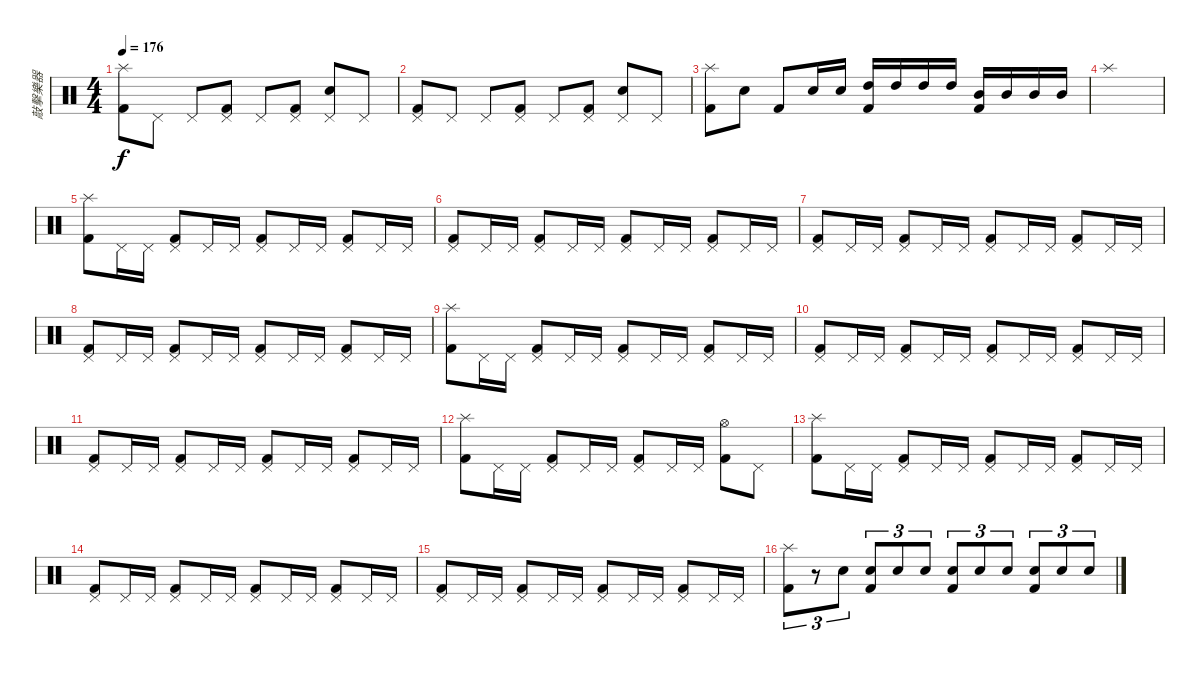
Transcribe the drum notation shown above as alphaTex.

\track ("敲擊樂器" "敲擊樂器") {instrument percussion}
\staff {score}
\articulation defaults
\ts (4 4)
\tempo 176
\clef neutral
\ks c
("Splash (hit)" "Kick (hit) 2").8{dy f} "Pedal Hi-Hat (hit)".8 "Pedal Hi-Hat (hit)".8 ("Kick (hit) 2" "Pedal Hi-Hat (hit)").8 "Pedal Hi-Hat (hit)".8 ("Pedal Hi-Hat (hit)" "Kick (hit) 2").8 ("Snare (hit) 2" "Pedal Hi-Hat (hit)").8 "Pedal Hi-Hat (hit)".8 |
("Pedal Hi-Hat (hit)" "Kick (hit) 2").8 "Pedal Hi-Hat (hit)".8 "Pedal Hi-Hat (hit)".8 ("Kick (hit) 2" "Pedal Hi-Hat (hit)").8 "Pedal Hi-Hat (hit)".8 ("Pedal Hi-Hat (hit)" "Kick (hit) 2").8 ("Snare (hit) 2" "Pedal Hi-Hat (hit)").8 "Pedal Hi-Hat (hit)".8 |
("Splash (hit)" "Kick (hit) 2").8 "Snare (hit) 2".8 "Kick (hit) 2".8 "Snare (hit) 2".16 "Snare (hit) 2".16 ("High Tom (hit)" "Kick (hit) 2").16 "High Tom (hit)".16 "High Tom (hit)".16 "High Tom (hit)".16 ("Kick (hit) 2" "Mid Tom (hit)").16 "Mid Tom (hit)".16 "Mid Tom (hit)".16 "Mid Tom (hit)".16 |
"Splash (hit)".1 |
("Splash (hit)" "Kick (hit) 2").8 "Pedal Hi-Hat (hit)".16 "Pedal Hi-Hat (hit)".16 ("Pedal Hi-Hat (hit)" "Kick (hit) 2").8 "Pedal Hi-Hat (hit)".16 "Pedal Hi-Hat (hit)".16 ("Pedal Hi-Hat (hit)" "Kick (hit) 2").8 "Pedal Hi-Hat (hit)".16 "Pedal Hi-Hat (hit)".16 ("Pedal Hi-Hat (hit)" "Kick (hit) 2").8 "Pedal Hi-Hat (hit)".16 "Pedal Hi-Hat (hit)".16 |
("Pedal Hi-Hat (hit)" "Kick (hit) 2").8 "Pedal Hi-Hat (hit)".16 "Pedal Hi-Hat (hit)".16 ("Pedal Hi-Hat (hit)" "Kick (hit) 2").8 "Pedal Hi-Hat (hit)".16 "Pedal Hi-Hat (hit)".16 ("Pedal Hi-Hat (hit)" "Kick (hit) 2").8 "Pedal Hi-Hat (hit)".16 "Pedal Hi-Hat (hit)".16 ("Pedal Hi-Hat (hit)" "Kick (hit) 2").8 "Pedal Hi-Hat (hit)".16 "Pedal Hi-Hat (hit)".16 |
("Pedal Hi-Hat (hit)" "Kick (hit) 2").8 "Pedal Hi-Hat (hit)".16 "Pedal Hi-Hat (hit)".16 ("Pedal Hi-Hat (hit)" "Kick (hit) 2").8 "Pedal Hi-Hat (hit)".16 "Pedal Hi-Hat (hit)".16 ("Pedal Hi-Hat (hit)" "Kick (hit) 2").8 "Pedal Hi-Hat (hit)".16 "Pedal Hi-Hat (hit)".16 ("Pedal Hi-Hat (hit)" "Kick (hit) 2").8 "Pedal Hi-Hat (hit)".16 "Pedal Hi-Hat (hit)".16 |
("Pedal Hi-Hat (hit)" "Kick (hit) 2").8 "Pedal Hi-Hat (hit)".16 "Pedal Hi-Hat (hit)".16 ("Pedal Hi-Hat (hit)" "Kick (hit) 2").8 "Pedal Hi-Hat (hit)".16 "Pedal Hi-Hat (hit)".16 ("Pedal Hi-Hat (hit)" "Kick (hit) 2").8 "Pedal Hi-Hat (hit)".16 "Pedal Hi-Hat (hit)".16 ("Pedal Hi-Hat (hit)" "Kick (hit) 2").8 "Pedal Hi-Hat (hit)".16 "Pedal Hi-Hat (hit)".16 |
("Splash (hit)" "Kick (hit) 2").8 "Pedal Hi-Hat (hit)".16 "Pedal Hi-Hat (hit)".16 ("Pedal Hi-Hat (hit)" "Kick (hit) 2").8 "Pedal Hi-Hat (hit)".16 "Pedal Hi-Hat (hit)".16 ("Pedal Hi-Hat (hit)" "Kick (hit) 2").8 "Pedal Hi-Hat (hit)".16 "Pedal Hi-Hat (hit)".16 ("Pedal Hi-Hat (hit)" "Kick (hit) 2").8 "Pedal Hi-Hat (hit)".16 "Pedal Hi-Hat (hit)".16 |
("Pedal Hi-Hat (hit)" "Kick (hit) 2").8 "Pedal Hi-Hat (hit)".16 "Pedal Hi-Hat (hit)".16 ("Pedal Hi-Hat (hit)" "Kick (hit) 2").8 "Pedal Hi-Hat (hit)".16 "Pedal Hi-Hat (hit)".16 ("Pedal Hi-Hat (hit)" "Kick (hit) 2").8 "Pedal Hi-Hat (hit)".16 "Pedal Hi-Hat (hit)".16 ("Pedal Hi-Hat (hit)" "Kick (hit) 2").8 "Pedal Hi-Hat (hit)".16 "Pedal Hi-Hat (hit)".16 |
("Pedal Hi-Hat (hit)" "Kick (hit) 2").8 "Pedal Hi-Hat (hit)".16 "Pedal Hi-Hat (hit)".16 ("Pedal Hi-Hat (hit)" "Kick (hit) 2").8 "Pedal Hi-Hat (hit)".16 "Pedal Hi-Hat (hit)".16 ("Pedal Hi-Hat (hit)" "Kick (hit) 2").8 "Pedal Hi-Hat (hit)".16 "Pedal Hi-Hat (hit)".16 ("Pedal Hi-Hat (hit)" "Kick (hit) 2").8 "Pedal Hi-Hat (hit)".16 "Pedal Hi-Hat (hit)".16 |
("Splash (hit)" "Kick (hit) 2").8 "Pedal Hi-Hat (hit)".16 "Pedal Hi-Hat (hit)".16 ("Pedal Hi-Hat (hit)" "Kick (hit) 2").8 "Pedal Hi-Hat (hit)".16 "Pedal Hi-Hat (hit)".16 ("Pedal Hi-Hat (hit)" "Kick (hit) 2").8 "Pedal Hi-Hat (hit)".16 "Pedal Hi-Hat (hit)".16 ("Hi-Hat (open)" "Kick (hit) 2").8 "Pedal Hi-Hat (hit)".8 |
("Splash (hit)" "Kick (hit) 2").8 "Pedal Hi-Hat (hit)".16 "Pedal Hi-Hat (hit)".16 ("Pedal Hi-Hat (hit)" "Kick (hit) 2").8 "Pedal Hi-Hat (hit)".16 "Pedal Hi-Hat (hit)".16 ("Pedal Hi-Hat (hit)" "Kick (hit) 2").8 "Pedal Hi-Hat (hit)".16 "Pedal Hi-Hat (hit)".16 ("Pedal Hi-Hat (hit)" "Kick (hit) 2").8 "Pedal Hi-Hat (hit)".16 "Pedal Hi-Hat (hit)".16 |
("Pedal Hi-Hat (hit)" "Kick (hit) 2").8 "Pedal Hi-Hat (hit)".16 "Pedal Hi-Hat (hit)".16 ("Pedal Hi-Hat (hit)" "Kick (hit) 2").8 "Pedal Hi-Hat (hit)".16 "Pedal Hi-Hat (hit)".16 ("Pedal Hi-Hat (hit)" "Kick (hit) 2").8 "Pedal Hi-Hat (hit)".16 "Pedal Hi-Hat (hit)".16 ("Pedal Hi-Hat (hit)" "Kick (hit) 2").8 "Pedal Hi-Hat (hit)".16 "Pedal Hi-Hat (hit)".16 |
("Pedal Hi-Hat (hit)" "Kick (hit) 2").8 "Pedal Hi-Hat (hit)".16 "Pedal Hi-Hat (hit)".16 ("Pedal Hi-Hat (hit)" "Kick (hit) 2").8 "Pedal Hi-Hat (hit)".16 "Pedal Hi-Hat (hit)".16 ("Pedal Hi-Hat (hit)" "Kick (hit) 2").8 "Pedal Hi-Hat (hit)".16 "Pedal Hi-Hat (hit)".16 ("Pedal Hi-Hat (hit)" "Kick (hit) 2").8 "Pedal Hi-Hat (hit)".16 "Pedal Hi-Hat (hit)".16 |
("Splash (hit)" "Kick (hit) 2").8{tu (3 2)} r.8{tu (3 2)} "Snare (hit) 2".8{tu (3 2)} ("Snare (hit) 2" "Kick (hit) 2").8{tu (3 2)} "Snare (hit) 2".8{tu (3 2)} "Snare (hit) 2".8{tu (3 2)} ("Snare (hit) 2" "Kick (hit) 2").8{tu (3 2)} "Snare (hit) 2".8{tu (3 2)} "Snare (hit) 2".8{tu (3 2)} ("Snare (hit) 2" "Kick (hit) 2").8{tu (3 2)} "Snare (hit) 2".8{tu (3 2)} "Snare (hit) 2".8{tu (3 2)}
